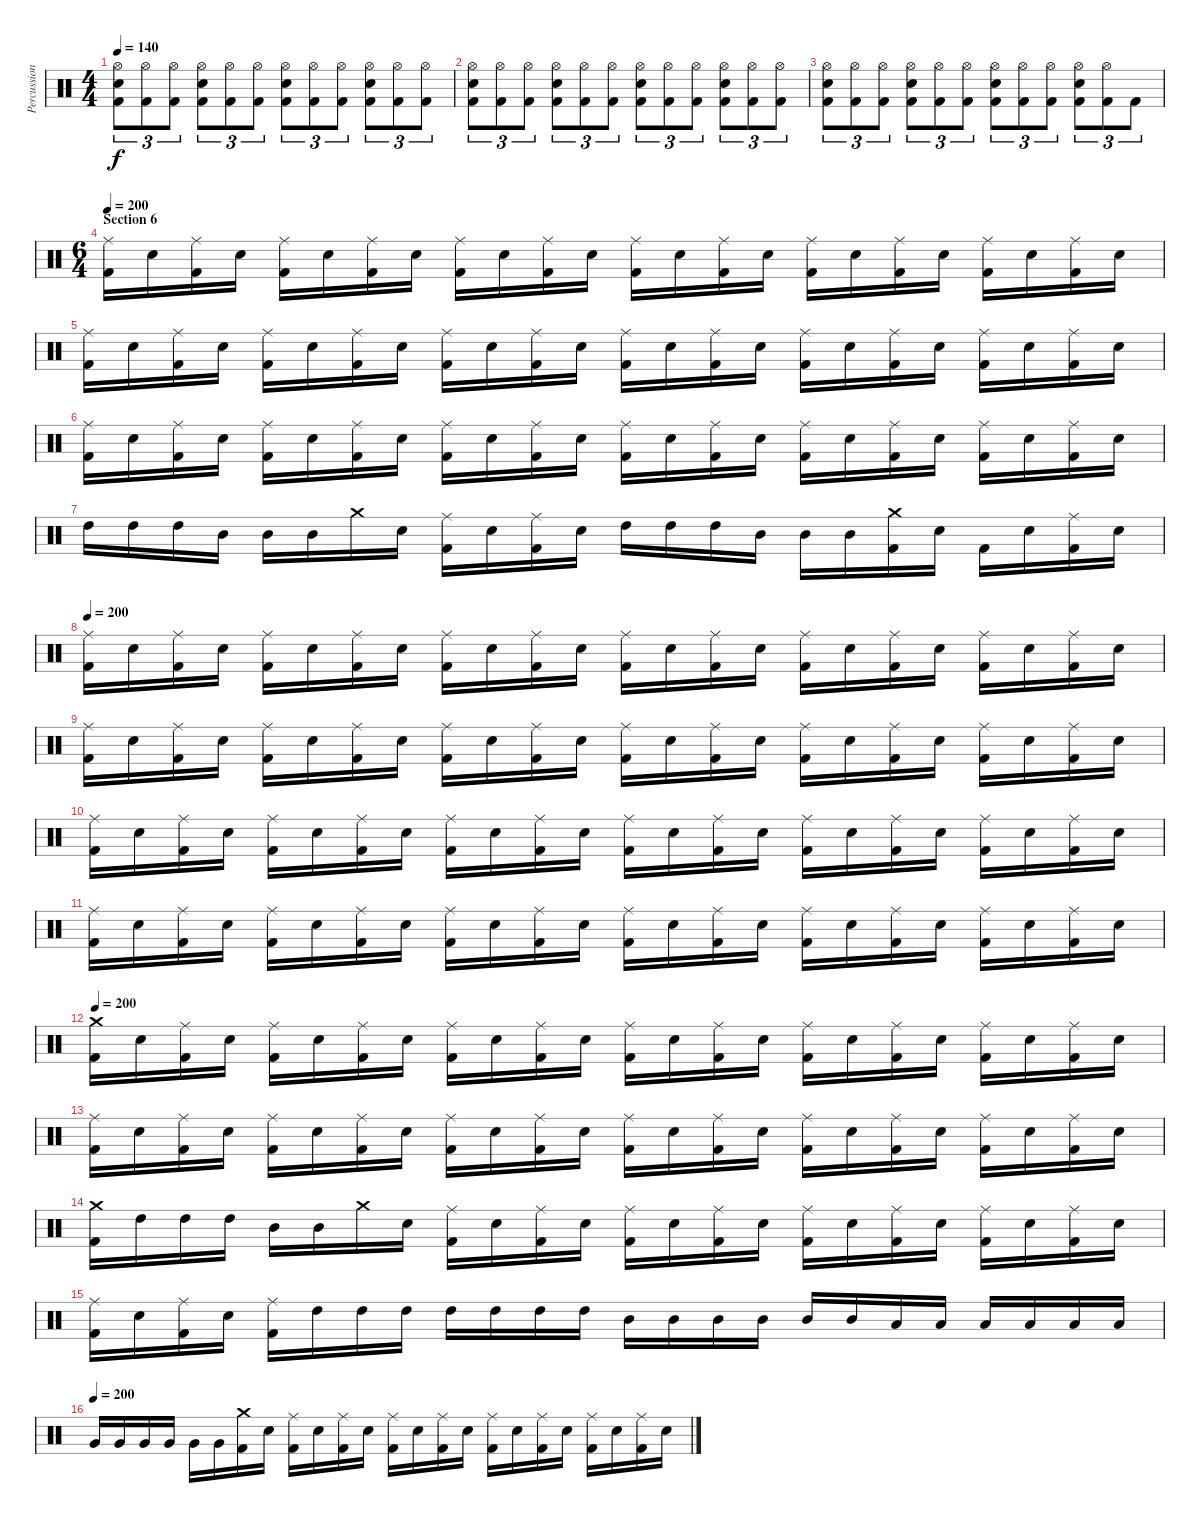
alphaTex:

\track ("Percussion" "Percussion") {instrument percussion}
\staff {score}
\articulation defaults
\ts (4 4)
\tempo 140
\clef neutral
\ks c
("Hi-Hat (open)" "Electric Snare (hit)" "Kick (hit) 2").8{tu (3 2) dy f} ("Hi-Hat (open)" "Kick (hit) 2").8{tu (3 2)} ("Hi-Hat (open)" "Kick (hit) 2").8{tu (3 2)} ("Hi-Hat (open)" "Electric Snare (hit)" "Kick (hit) 2").8{tu (3 2)} ("Hi-Hat (open)" "Kick (hit) 2").8{tu (3 2)} ("Hi-Hat (open)" "Kick (hit) 2").8{tu (3 2)} ("Hi-Hat (open)" "Electric Snare (hit)" "Kick (hit) 2").8{tu (3 2)} ("Hi-Hat (open)" "Kick (hit) 2").8{tu (3 2)} ("Hi-Hat (open)" "Kick (hit) 2").8{tu (3 2)} ("Hi-Hat (open)" "Electric Snare (hit)" "Kick (hit) 2").8{tu (3 2)} ("Hi-Hat (open)" "Kick (hit) 2").8{tu (3 2)} ("Hi-Hat (open)" "Kick (hit) 2").8{tu (3 2)} |
("Hi-Hat (open)" "Electric Snare (hit)" "Kick (hit) 2").8{tu (3 2)} ("Hi-Hat (open)" "Kick (hit) 2").8{tu (3 2)} ("Hi-Hat (open)" "Kick (hit) 2").8{tu (3 2)} ("Hi-Hat (open)" "Electric Snare (hit)" "Kick (hit) 2").8{tu (3 2)} ("Hi-Hat (open)" "Kick (hit) 2").8{tu (3 2)} ("Hi-Hat (open)" "Kick (hit) 2").8{tu (3 2)} ("Hi-Hat (open)" "Electric Snare (hit)" "Kick (hit) 2").8{tu (3 2)} ("Hi-Hat (open)" "Kick (hit) 2").8{tu (3 2)} ("Hi-Hat (open)" "Kick (hit) 2").8{tu (3 2)} ("Hi-Hat (open)" "Electric Snare (hit)" "Kick (hit) 2").8{tu (3 2)} ("Hi-Hat (open)" "Kick (hit) 2").8{tu (3 2)} ("Hi-Hat (open)" "Kick (hit) 2").8{tu (3 2)} |
("Hi-Hat (open)" "Electric Snare (hit)" "Kick (hit) 2").8{tu (3 2)} ("Hi-Hat (open)" "Kick (hit) 2").8{tu (3 2)} ("Hi-Hat (open)" "Kick (hit) 2").8{tu (3 2)} ("Hi-Hat (open)" "Electric Snare (hit)" "Kick (hit) 2").8{tu (3 2)} ("Hi-Hat (open)" "Kick (hit) 2").8{tu (3 2)} ("Hi-Hat (open)" "Kick (hit) 2").8{tu (3 2)} ("Hi-Hat (open)" "Electric Snare (hit)" "Kick (hit) 2").8{tu (3 2)} ("Hi-Hat (open)" "Kick (hit) 2").8{tu (3 2)} ("Hi-Hat (open)" "Kick (hit) 2").8{tu (3 2)} ("Hi-Hat (open)" "Electric Snare (hit)" "Kick (hit) 2").8{tu (3 2)} ("Hi-Hat (open)" "Kick (hit) 2").8{tu (3 2)} "Kick (hit) 2".8{tu (3 2)} |
\ts (6 4)
\section ("" "Section 6")
\tempo 200
("Ride (middle)" "Kick (hit) 2").16 "Electric Snare (hit)".16 ("Ride (middle)" "Kick (hit) 2").16 "Electric Snare (hit)".16 ("Ride (middle)" "Kick (hit) 2").16 "Electric Snare (hit)".16 ("Ride (middle)" "Kick (hit) 2").16 "Electric Snare (hit)".16 ("Ride (middle)" "Kick (hit) 2").16 "Electric Snare (hit)".16 ("Ride (middle)" "Kick (hit) 2").16 "Electric Snare (hit)".16 ("Ride (middle)" "Kick (hit) 2").16 "Electric Snare (hit)".16 ("Ride (middle)" "Kick (hit) 2").16 "Electric Snare (hit)".16 ("Ride (middle)" "Kick (hit) 2").16 "Electric Snare (hit)".16 ("Ride (middle)" "Kick (hit) 2").16 "Electric Snare (hit)".16 ("Ride (middle)" "Kick (hit) 2").16 "Electric Snare (hit)".16 ("Ride (middle)" "Kick (hit) 2").16 "Electric Snare (hit)".16 |
("Ride (middle)" "Kick (hit) 2").16 "Electric Snare (hit)".16 ("Ride (middle)" "Kick (hit) 2").16 "Electric Snare (hit)".16 ("Ride (middle)" "Kick (hit) 2").16 "Electric Snare (hit)".16 ("Ride (middle)" "Kick (hit) 2").16 "Electric Snare (hit)".16 ("Ride (middle)" "Kick (hit) 2").16 "Electric Snare (hit)".16 ("Ride (middle)" "Kick (hit) 2").16 "Electric Snare (hit)".16 ("Ride (middle)" "Kick (hit) 2").16 "Electric Snare (hit)".16 ("Ride (middle)" "Kick (hit) 2").16 "Electric Snare (hit)".16 ("Ride (middle)" "Kick (hit) 2").16 "Electric Snare (hit)".16 ("Ride (middle)" "Kick (hit) 2").16 "Electric Snare (hit)".16 ("Ride (middle)" "Kick (hit) 2").16 "Electric Snare (hit)".16 ("Ride (middle)" "Kick (hit) 2").16 "Electric Snare (hit)".16 |
("Ride (middle)" "Kick (hit) 2").16 "Electric Snare (hit)".16 ("Ride (middle)" "Kick (hit) 2").16 "Electric Snare (hit)".16 ("Ride (middle)" "Kick (hit) 2").16 "Electric Snare (hit)".16 ("Ride (middle)" "Kick (hit) 2").16 "Electric Snare (hit)".16 ("Ride (middle)" "Kick (hit) 2").16 "Electric Snare (hit)".16 ("Ride (middle)" "Kick (hit) 2").16 "Electric Snare (hit)".16 ("Ride (middle)" "Kick (hit) 2").16 "Electric Snare (hit)".16 ("Ride (middle)" "Kick (hit) 2").16 "Electric Snare (hit)".16 ("Ride (middle)" "Kick (hit) 2").16 "Electric Snare (hit)".16 ("Ride (middle)" "Kick (hit) 2").16 "Electric Snare (hit)".16 ("Ride (middle)" "Kick (hit) 2").16 "Electric Snare (hit)".16 ("Ride (middle)" "Kick (hit) 2").16 "Electric Snare (hit)".16 |
"High Tom (hit)".16 "High Tom (hit)".16 "High Tom (hit)".16 "Mid Tom (hit)".16 "Mid Tom (hit)".16 "Mid Tom (hit)".16 "Crash medium (hit)".16 "Electric Snare (hit)".16 ("Ride (middle)" "Kick (hit) 2").16 "Electric Snare (hit)".16 ("Ride (middle)" "Kick (hit) 2").16 "Electric Snare (hit)".16 "High Tom (hit)".16 "High Tom (hit)".16 "High Tom (hit)".16 "Mid Tom (hit)".16 "Mid Tom (hit)".16 "Mid Tom (hit)".16 ("Crash medium (hit)" "Kick (hit) 2").16 "Electric Snare (hit)".16 "Kick (hit) 2".16 "Electric Snare (hit)".16 ("Ride (middle)" "Kick (hit) 2").16 "Electric Snare (hit)".16 |
\tempo 200
("Ride (middle)" "Kick (hit) 2").16 "Electric Snare (hit)".16 ("Ride (middle)" "Kick (hit) 2").16 "Electric Snare (hit)".16 ("Ride (middle)" "Kick (hit) 2").16 "Electric Snare (hit)".16 ("Ride (middle)" "Kick (hit) 2").16 "Electric Snare (hit)".16 ("Ride (middle)" "Kick (hit) 2").16 "Electric Snare (hit)".16 ("Ride (middle)" "Kick (hit) 2").16 "Electric Snare (hit)".16 ("Ride (middle)" "Kick (hit) 2").16 "Electric Snare (hit)".16 ("Ride (middle)" "Kick (hit) 2").16 "Electric Snare (hit)".16 ("Ride (middle)" "Kick (hit) 2").16 "Electric Snare (hit)".16 ("Ride (middle)" "Kick (hit) 2").16 "Electric Snare (hit)".16 ("Ride (middle)" "Kick (hit) 2").16 "Electric Snare (hit)".16 ("Ride (middle)" "Kick (hit) 2").16 "Electric Snare (hit)".16 |
("Ride (middle)" "Kick (hit) 2").16 "Electric Snare (hit)".16 ("Ride (middle)" "Kick (hit) 2").16 "Electric Snare (hit)".16 ("Ride (middle)" "Kick (hit) 2").16 "Electric Snare (hit)".16 ("Ride (middle)" "Kick (hit) 2").16 "Electric Snare (hit)".16 ("Ride (middle)" "Kick (hit) 2").16 "Electric Snare (hit)".16 ("Ride (middle)" "Kick (hit) 2").16 "Electric Snare (hit)".16 ("Ride (middle)" "Kick (hit) 2").16 "Electric Snare (hit)".16 ("Ride (middle)" "Kick (hit) 2").16 "Electric Snare (hit)".16 ("Ride (middle)" "Kick (hit) 2").16 "Electric Snare (hit)".16 ("Ride (middle)" "Kick (hit) 2").16 "Electric Snare (hit)".16 ("Ride (middle)" "Kick (hit) 2").16 "Electric Snare (hit)".16 ("Ride (middle)" "Kick (hit) 2").16 "Electric Snare (hit)".16 |
("Ride (middle)" "Kick (hit) 2").16 "Electric Snare (hit)".16 ("Ride (middle)" "Kick (hit) 2").16 "Electric Snare (hit)".16 ("Ride (middle)" "Kick (hit) 2").16 "Electric Snare (hit)".16 ("Ride (middle)" "Kick (hit) 2").16 "Electric Snare (hit)".16 ("Ride (middle)" "Kick (hit) 2").16 "Electric Snare (hit)".16 ("Ride (middle)" "Kick (hit) 2").16 "Electric Snare (hit)".16 ("Ride (middle)" "Kick (hit) 2").16 "Electric Snare (hit)".16 ("Ride (middle)" "Kick (hit) 2").16 "Electric Snare (hit)".16 ("Ride (middle)" "Kick (hit) 2").16 "Electric Snare (hit)".16 ("Ride (middle)" "Kick (hit) 2").16 "Electric Snare (hit)".16 ("Ride (middle)" "Kick (hit) 2").16 "Electric Snare (hit)".16 ("Ride (middle)" "Kick (hit) 2").16 "Electric Snare (hit)".16 |
("Ride (middle)" "Kick (hit) 2").16 "Electric Snare (hit)".16 ("Ride (middle)" "Kick (hit) 2").16 "Electric Snare (hit)".16 ("Ride (middle)" "Kick (hit) 2").16 "Electric Snare (hit)".16 ("Ride (middle)" "Kick (hit) 2").16 "Electric Snare (hit)".16 ("Ride (middle)" "Kick (hit) 2").16 "Electric Snare (hit)".16 ("Ride (middle)" "Kick (hit) 2").16 "Electric Snare (hit)".16 ("Ride (middle)" "Kick (hit) 2").16 "Electric Snare (hit)".16 ("Ride (middle)" "Kick (hit) 2").16 "Electric Snare (hit)".16 ("Ride (middle)" "Kick (hit) 2").16 "Electric Snare (hit)".16 ("Ride (middle)" "Kick (hit) 2").16 "Electric Snare (hit)".16 ("Ride (middle)" "Kick (hit) 2").16 "Electric Snare (hit)".16 ("Ride (middle)" "Kick (hit) 2").16 "Electric Snare (hit)".16 |
\tempo 200
("Crash medium (hit)" "Kick (hit) 2").16 "Electric Snare (hit)".16 ("Ride (middle)" "Kick (hit) 2").16 "Electric Snare (hit)".16 ("Ride (middle)" "Kick (hit) 2").16 "Electric Snare (hit)".16 ("Ride (middle)" "Kick (hit) 2").16 "Electric Snare (hit)".16 ("Ride (middle)" "Kick (hit) 2").16 "Electric Snare (hit)".16 ("Ride (middle)" "Kick (hit) 2").16 "Electric Snare (hit)".16 ("Ride (middle)" "Kick (hit) 2").16 "Electric Snare (hit)".16 ("Ride (middle)" "Kick (hit) 2").16 "Electric Snare (hit)".16 ("Ride (middle)" "Kick (hit) 2").16 "Electric Snare (hit)".16 ("Ride (middle)" "Kick (hit) 2").16 "Electric Snare (hit)".16 ("Ride (middle)" "Kick (hit) 2").16 "Electric Snare (hit)".16 ("Ride (middle)" "Kick (hit) 2").16 "Electric Snare (hit)".16 |
("Ride (middle)" "Kick (hit) 2").16 "Electric Snare (hit)".16 ("Ride (middle)" "Kick (hit) 2").16 "Electric Snare (hit)".16 ("Ride (middle)" "Kick (hit) 2").16 "Electric Snare (hit)".16 ("Ride (middle)" "Kick (hit) 2").16 "Electric Snare (hit)".16 ("Ride (middle)" "Kick (hit) 2").16 "Electric Snare (hit)".16 ("Ride (middle)" "Kick (hit) 2").16 "Electric Snare (hit)".16 ("Ride (middle)" "Kick (hit) 2").16 "Electric Snare (hit)".16 ("Ride (middle)" "Kick (hit) 2").16 "Electric Snare (hit)".16 ("Ride (middle)" "Kick (hit) 2").16 "Electric Snare (hit)".16 ("Ride (middle)" "Kick (hit) 2").16 "Electric Snare (hit)".16 ("Ride (middle)" "Kick (hit) 2").16 "Electric Snare (hit)".16 ("Ride (middle)" "Kick (hit) 2").16 "Electric Snare (hit)".16 |
("Crash medium (hit)" "Kick (hit) 2").16 "High Tom (hit)".16 "High Tom (hit)".16 "High Tom (hit)".16 "Mid Tom (hit)".16 "Mid Tom (hit)".16 "Crash medium (hit)".16 "Electric Snare (hit)".16 ("Ride (middle)" "Kick (hit) 2").16 "Electric Snare (hit)".16 ("Ride (middle)" "Kick (hit) 2").16 "Electric Snare (hit)".16 ("Ride (middle)" "Kick (hit) 2").16 "Electric Snare (hit)".16 ("Ride (middle)" "Kick (hit) 2").16 "Electric Snare (hit)".16 ("Ride (middle)" "Kick (hit) 2").16 "Electric Snare (hit)".16 ("Ride (middle)" "Kick (hit) 2").16 "Electric Snare (hit)".16 ("Ride (middle)" "Kick (hit) 2").16 "Electric Snare (hit)".16 ("Ride (middle)" "Kick (hit) 2").16 "Electric Snare (hit)".16 |
("Ride (middle)" "Kick (hit) 2").16 "Electric Snare (hit)".16 ("Ride (middle)" "Kick (hit) 2").16 "Electric Snare (hit)".16 ("Ride (middle)" "Kick (hit) 2").16 "High Tom (hit)".16 "High Tom (hit)".16 "High Tom (hit)".16 "High Tom (hit)".16 "High Tom (hit)".16 "High Tom (hit)".16 "High Tom (hit)".16 "Mid Tom (hit)".16 "Mid Tom (hit)".16 "Mid Tom (hit)".16 "Mid Tom (hit)".16 "Mid Tom (hit)".16 "Mid Tom (hit)".16 "Low Tom (hit)".16 "Low Tom (hit)".16 "Low Tom (hit)".16 "Low Tom (hit)".16 "Low Tom (hit)".16 "Low Tom (hit)".16 |
\tempo (200)
"Very Low Tom (hit)".16 "Very Low Tom (hit)".16 "Very Low Tom (hit)".16 "Very Low Tom (hit)".16 "Very Low Tom (hit)".16 "Very Low Tom (hit)".16 ("Crash medium (hit)" "Kick (hit) 2").16 "Electric Snare (hit)".16 ("Ride (middle)" "Kick (hit) 2").16 "Electric Snare (hit)".16 ("Ride (middle)" "Kick (hit) 2").16 "Electric Snare (hit)".16 ("Ride (middle)" "Kick (hit) 2").16 "Electric Snare (hit)".16 ("Ride (middle)" "Kick (hit) 2").16 "Electric Snare (hit)".16 ("Ride (middle)" "Kick (hit) 2").16 "Electric Snare (hit)".16 ("Ride (middle)" "Kick (hit) 2").16 "Electric Snare (hit)".16 ("Ride (middle)" "Kick (hit) 2").16 "Electric Snare (hit)".16 ("Ride (middle)" "Kick (hit) 2").16 "Electric Snare (hit)".16
